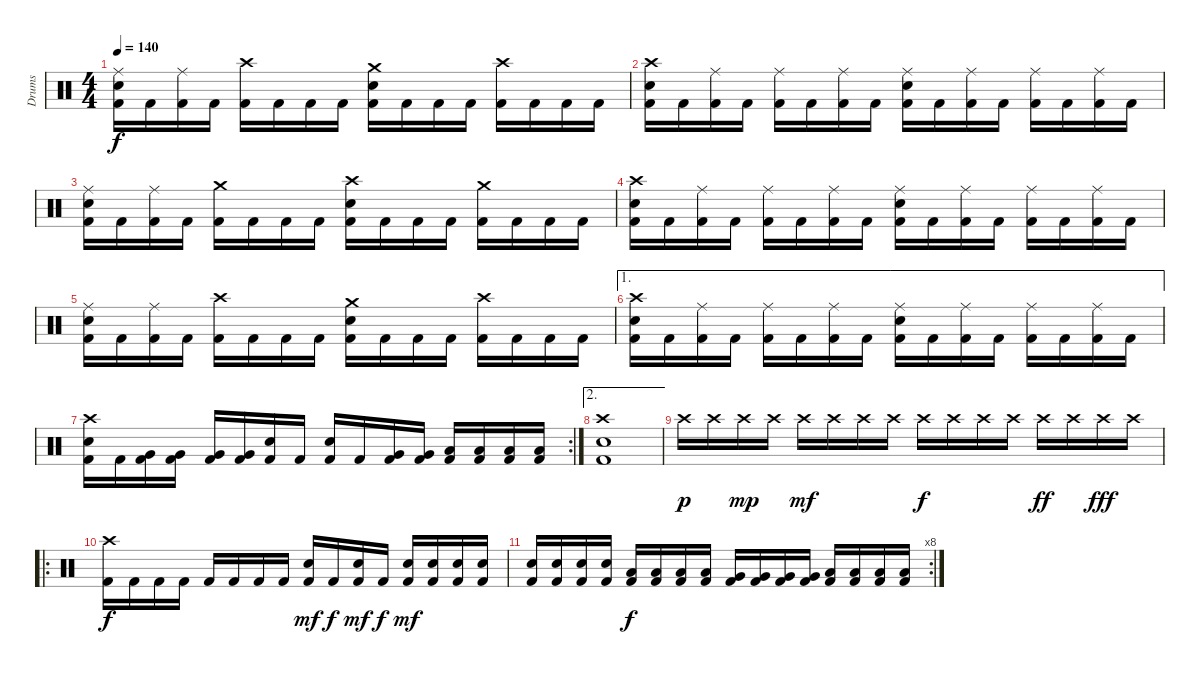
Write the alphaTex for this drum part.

\track ("Drums" "Drums") {instrument percussion}
\staff {score}
\articulation defaults
\ts (4 4)
\tempo 140
\clef neutral
\ks c
("Ride (middle)" "Snare (hit) 2" "Kick (hit) 2").16{dy f} "Kick (hit) 2".16 ("Ride (middle)" "Kick (hit) 2").16 "Kick (hit) 2".16 ("Crash high (hit)" "Kick (hit) 2").16 "Kick (hit) 2".16 "Kick (hit) 2".16 "Kick (hit) 2".16 ("Crash medium (hit)" "Snare (hit) 2" "Kick (hit) 2").16 "Kick (hit) 2".16 "Kick (hit) 2".16 "Kick (hit) 2".16 ("Crash high (hit)" "Kick (hit) 2").16 "Kick (hit) 2".16 "Kick (hit) 2".16 "Kick (hit) 2".16 |
("Crash high (hit)" "Snare (hit) 2" "Kick (hit) 2").16 "Kick (hit) 2".16 ("Ride (middle)" "Kick (hit) 2").16 "Kick (hit) 2".16 ("Ride (middle)" "Kick (hit) 2").16 "Kick (hit) 2".16 ("Ride (middle)" "Kick (hit) 2").16 "Kick (hit) 2".16 ("Ride (middle)" "Snare (hit) 2" "Kick (hit) 2").16 "Kick (hit) 2".16 ("Ride (middle)" "Kick (hit) 2").16 "Kick (hit) 2".16 ("Ride (middle)" "Kick (hit) 2").16 "Kick (hit) 2".16 ("Ride (middle)" "Kick (hit) 2").16 "Kick (hit) 2".16 |
("Ride (middle)" "Snare (hit) 2" "Kick (hit) 2").16 "Kick (hit) 2".16 ("Ride (middle)" "Kick (hit) 2").16 "Kick (hit) 2".16 ("Crash medium (hit)" "Kick (hit) 2").16 "Kick (hit) 2".16 "Kick (hit) 2".16 "Kick (hit) 2".16 ("Crash high (hit)" "Snare (hit) 2" "Kick (hit) 2").16 "Kick (hit) 2".16 "Kick (hit) 2".16 "Kick (hit) 2".16 ("Crash medium (hit)" "Kick (hit) 2").16 "Kick (hit) 2".16 "Kick (hit) 2".16 "Kick (hit) 2".16 |
("Crash high (hit)" "Snare (hit) 2" "Kick (hit) 2").16 "Kick (hit) 2".16 ("Ride (middle)" "Kick (hit) 2").16 "Kick (hit) 2".16 ("Ride (middle)" "Kick (hit) 2").16 "Kick (hit) 2".16 ("Ride (middle)" "Kick (hit) 2").16 "Kick (hit) 2".16 ("Ride (middle)" "Snare (hit) 2" "Kick (hit) 2").16 "Kick (hit) 2".16 ("Ride (middle)" "Kick (hit) 2").16 "Kick (hit) 2".16 ("Ride (middle)" "Kick (hit) 2").16 "Kick (hit) 2".16 ("Ride (middle)" "Kick (hit) 2").16 "Kick (hit) 2".16 |
("Ride (middle)" "Snare (hit) 2" "Kick (hit) 2").16 "Kick (hit) 2".16 ("Ride (middle)" "Kick (hit) 2").16 "Kick (hit) 2".16 ("Crash high (hit)" "Kick (hit) 2").16 "Kick (hit) 2".16 "Kick (hit) 2".16 "Kick (hit) 2".16 ("Crash medium (hit)" "Snare (hit) 2" "Kick (hit) 2").16 "Kick (hit) 2".16 "Kick (hit) 2".16 "Kick (hit) 2".16 ("Crash high (hit)" "Kick (hit) 2").16 "Kick (hit) 2".16 "Kick (hit) 2".16 "Kick (hit) 2".16 |
\ae 1
("Crash high (hit)" "Snare (hit) 2" "Kick (hit) 2").16 "Kick (hit) 2".16 ("Ride (middle)" "Kick (hit) 2").16 "Kick (hit) 2".16 ("Ride (middle)" "Kick (hit) 2").16 "Kick (hit) 2".16 ("Ride (middle)" "Kick (hit) 2").16 "Kick (hit) 2".16 ("Ride (middle)" "Snare (hit) 2" "Kick (hit) 2").16 "Kick (hit) 2".16 ("Ride (middle)" "Kick (hit) 2").16 "Kick (hit) 2".16 ("Ride (middle)" "Kick (hit) 2").16 "Kick (hit) 2".16 ("Ride (middle)" "Kick (hit) 2").16 "Kick (hit) 2".16 |
\rc 2
("Crash high (hit)" "Snare (hit) 2" "Kick (hit) 2").16 "Kick (hit) 2".16 ("Very Low Tom (hit)" "Kick (hit) 2").16 ("Very Low Tom (hit)" "Kick (hit) 2").16 ("Very Low Tom (hit)" "Kick (hit) 2").16 ("Very Low Tom (hit)" "Kick (hit) 2").16 ("Snare (hit) 2" "Kick (hit) 2").16 "Kick (hit) 2".16 ("Snare (hit) 2" "Kick (hit) 2").16 "Kick (hit) 2".16 ("Very Low Tom (hit)" "Kick (hit) 2").16 ("Very Low Tom (hit)" "Kick (hit) 2").16 ("Low Floor Tom (hit)" "Kick (hit) 2").16 ("Low Floor Tom (hit)" "Kick (hit) 2").16 ("Low Floor Tom (hit)" "Kick (hit) 2").16 ("Low Floor Tom (hit)" "Kick (hit) 2").16 |
\ae 2
("Crash high (hit)" "Snare (hit) 2" "Kick (hit) 2").1 |
"Crash high (hit)".16{dy p} "Crash high (hit)".16 "Crash high (hit)".16{dy mp} "Crash high (hit)".16 "Crash high (hit)".16{dy mf} "Crash high (hit)".16 "Crash high (hit)".16 "Crash high (hit)".16 "Crash high (hit)".16{dy f} "Crash high (hit)".16 "Crash high (hit)".16 "Crash high (hit)".16 "Crash high (hit)".16{dy ff} "Crash high (hit)".16 "Crash high (hit)".16{dy fff} "Crash high (hit)".16 |
\ro
("Crash high (hit)" "Kick (hit) 2").16{dy f} "Kick (hit) 2".16 "Kick (hit) 2".16 "Kick (hit) 2".16 "Kick (hit) 2".16 "Kick (hit) 2".16 "Kick (hit) 2".16 "Kick (hit) 2".16 ("Snare (hit) 2" "Kick (hit) 2").16{dy mf} "Kick (hit) 2".16{dy f} ("Snare (hit) 2" "Kick (hit) 2").16{dy mf} "Kick (hit) 2".16{dy f} ("Snare (hit) 2" "Kick (hit) 2").16{dy mf} ("Snare (hit) 2" "Kick (hit) 2").16 ("Snare (hit) 2" "Kick (hit) 2").16 ("Snare (hit) 2" "Kick (hit) 2").16 |
\rc 8
("Snare (hit) 2" "Kick (hit) 2").16 ("Snare (hit) 2" "Kick (hit) 2").16 ("Snare (hit) 2" "Kick (hit) 2").16 ("Snare (hit) 2" "Kick (hit) 2").16 ("Low Floor Tom (hit)" "Kick (hit) 2").16{dy f} ("Low Floor Tom (hit)" "Kick (hit) 2").16 ("Low Floor Tom (hit)" "Kick (hit) 2").16 ("Low Floor Tom (hit)" "Kick (hit) 2").16 ("Very Low Tom (hit)" "Kick (hit) 2").16 ("Very Low Tom (hit)" "Kick (hit) 2").16 ("Very Low Tom (hit)" "Kick (hit) 2").16 ("Very Low Tom (hit)" "Kick (hit) 2").16 ("Low Floor Tom (hit)" "Kick (hit) 2").16 ("Low Floor Tom (hit)" "Kick (hit) 2").16 ("Low Floor Tom (hit)" "Kick (hit) 2").16 ("Low Floor Tom (hit)" "Kick (hit) 2").16
